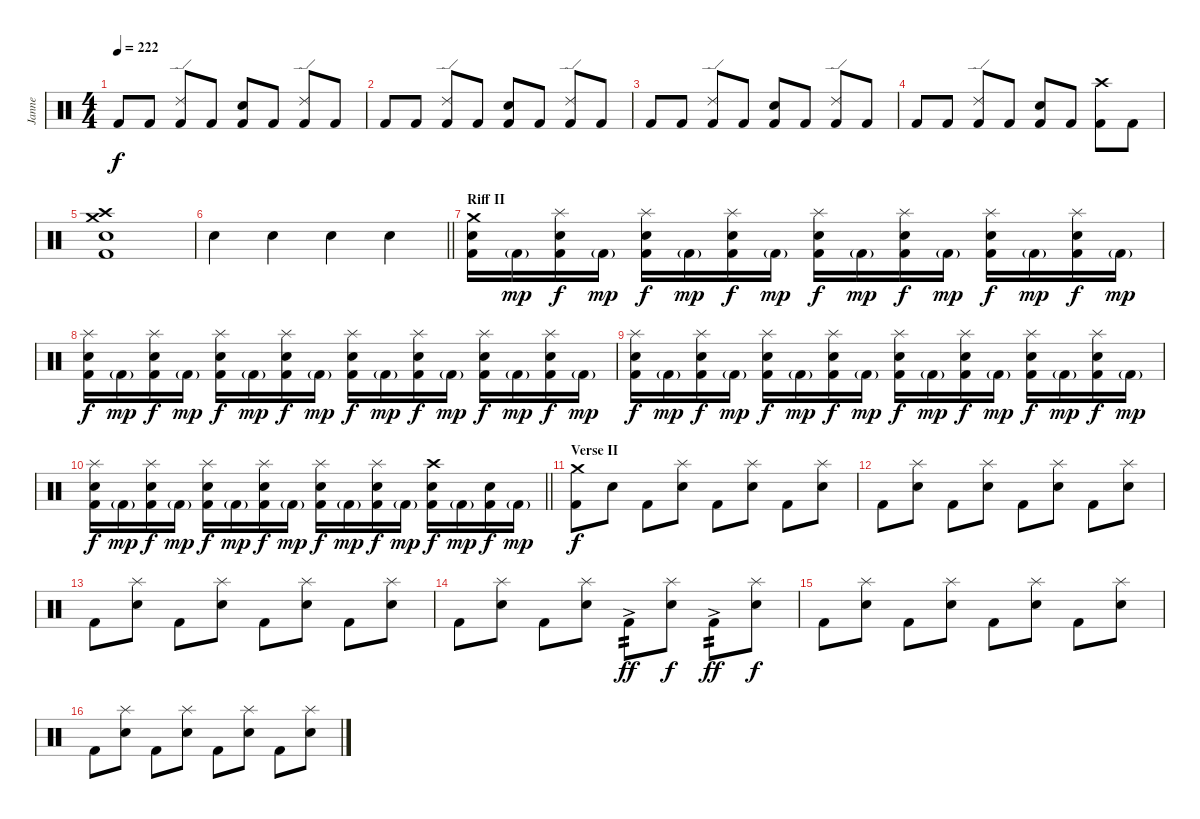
\track ("Janne" "Janne") {instrument percussion}
\staff {score}
\articulation defaults
\ts (4 4)
\tempo 222
\clef neutral
\ks c "Kick (hit) 2".8{dy f} "Kick (hit) 2".8
("Kick (hit) 2" "Ride (edge) 2").8 "Kick (hit) 2".8 ("Kick (hit) 2" "Electric Snare (hit)").8 "Kick (hit) 2".8 ("Kick (hit) 2" "Ride (edge) 2").8 "Kick (hit) 2".8 |
"Kick (hit) 2".8 "Kick (hit) 2".8 ("Kick (hit) 2" "Ride (edge) 2").8 "Kick (hit) 2".8 ("Kick (hit) 2" "Electric Snare (hit)").8 "Kick (hit) 2".8 ("Kick (hit) 2" "Ride (edge) 2").8 "Kick (hit) 2".8 |
"Kick (hit) 2".8 "Kick (hit) 2".8 ("Kick (hit) 2" "Ride (edge) 2").8 "Kick (hit) 2".8 ("Kick (hit) 2" "Electric Snare (hit)").8 "Kick (hit) 2".8 ("Kick (hit) 2" "Ride (edge) 2").8 "Kick (hit) 2".8 |
"Kick (hit) 2".8 "Kick (hit) 2".8 ("Kick (hit) 2" "Ride (edge) 2").8 "Kick (hit) 2".8 ("Kick (hit) 2" "Electric Snare (hit)").8 "Kick (hit) 2".8 ("Kick (hit) 2" "Crash high (hit)").8 "Kick (hit) 2".8 |
("Kick (hit) 2" "Electric Snare (hit)" "Crash medium (hit)" "Crash high (hit)").1 |
\barLineRight lightlight "Electric Snare (hit)".4 "Electric Snare (hit)".4 "Electric Snare (hit)".4 "Electric Snare (hit)".4
|
\section ("" "Riff II")
("Kick (hit) 2" "Electric Snare (hit)" "Crash medium (hit)").16 "Kick (hit) 2"{g}.16{dy mp} ("Kick (hit) 2" "Electric Snare (hit)" "Splash (hit)").16{dy f} "Kick (hit) 2"{g}.16{dy mp} ("Kick (hit) 2" "Electric Snare (hit)" "Splash (hit)").16{dy f} "Kick (hit) 2"{g}.16{dy mp} ("Kick (hit) 2" "Electric Snare (hit)" "Splash (hit)").16{dy f} "Kick (hit) 2"{g}.16{dy mp} ("Kick (hit) 2" "Electric Snare (hit)" "Splash (hit)").16{dy f} "Kick (hit) 2"{g}.16{dy mp} ("Kick (hit) 2" "Electric Snare (hit)" "Splash (hit)").16{dy f} "Kick (hit) 2"{g}.16{dy mp} ("Kick (hit) 2" "Electric Snare (hit)" "Splash (hit)").16{dy f} "Kick (hit) 2"{g}.16{dy mp} ("Kick (hit) 2" "Electric Snare (hit)" "Splash (hit)").16{dy f} "Kick (hit) 2"{g}.16{dy mp} |
("Kick (hit) 2" "Electric Snare (hit)" "Splash (hit)").16{dy f} "Kick (hit) 2"{g}.16{dy mp} ("Kick (hit) 2" "Electric Snare (hit)" "Splash (hit)").16{dy f} "Kick (hit) 2"{g}.16{dy mp} ("Kick (hit) 2" "Electric Snare (hit)" "Splash (hit)").16{dy f} "Kick (hit) 2"{g}.16{dy mp} ("Kick (hit) 2" "Electric Snare (hit)" "Splash (hit)").16{dy f} "Kick (hit) 2"{g}.16{dy mp} ("Kick (hit) 2" "Electric Snare (hit)" "Splash (hit)").16{dy f} "Kick (hit) 2"{g}.16{dy mp} ("Kick (hit) 2" "Electric Snare (hit)" "Splash (hit)").16{dy f} "Kick (hit) 2"{g}.16{dy mp} ("Kick (hit) 2" "Electric Snare (hit)" "Splash (hit)").16{dy f} "Kick (hit) 2"{g}.16{dy mp} ("Kick (hit) 2" "Electric Snare (hit)" "Splash (hit)").16{dy f} "Kick (hit) 2"{g}.16{dy mp} |
("Kick (hit) 2" "Electric Snare (hit)" "Splash (hit)").16{dy f} "Kick (hit) 2"{g}.16{dy mp} ("Kick (hit) 2" "Electric Snare (hit)" "Splash (hit)").16{dy f} "Kick (hit) 2"{g}.16{dy mp} ("Kick (hit) 2" "Electric Snare (hit)" "Splash (hit)").16{dy f} "Kick (hit) 2"{g}.16{dy mp} ("Kick (hit) 2" "Electric Snare (hit)" "Splash (hit)").16{dy f} "Kick (hit) 2"{g}.16{dy mp} ("Kick (hit) 2" "Electric Snare (hit)" "Splash (hit)").16{dy f} "Kick (hit) 2"{g}.16{dy mp} ("Kick (hit) 2" "Electric Snare (hit)" "Splash (hit)").16{dy f} "Kick (hit) 2"{g}.16{dy mp} ("Kick (hit) 2" "Electric Snare (hit)" "Splash (hit)").16{dy f} "Kick (hit) 2"{g}.16{dy mp} ("Kick (hit) 2" "Electric Snare (hit)" "Splash (hit)").16{dy f} "Kick (hit) 2"{g}.16{dy mp} |
\barLineRight lightlight
("Kick (hit) 2" "Electric Snare (hit)" "Splash (hit)").16{dy f} "Kick (hit) 2"{g}.16{dy mp} ("Kick (hit) 2" "Electric Snare (hit)" "Splash (hit)").16{dy f} "Kick (hit) 2"{g}.16{dy mp} ("Kick (hit) 2" "Electric Snare (hit)" "Splash (hit)").16{dy f} "Kick (hit) 2"{g}.16{dy mp} ("Kick (hit) 2" "Electric Snare (hit)" "Splash (hit)").16{dy f} "Kick (hit) 2"{g}.16{dy mp} ("Kick (hit) 2" "Electric Snare (hit)" "Splash (hit)").16{dy f} "Kick (hit) 2"{g}.16{dy mp} ("Kick (hit) 2" "Electric Snare (hit)" "Splash (hit)").16{dy f} "Kick (hit) 2"{g}.16{dy mp} ("Kick (hit) 2" "Electric Snare (hit)" "Crash high (hit)").16{dy f} "Kick (hit) 2"{g}.16{dy mp} ("Kick (hit) 2" "Electric Snare (hit)").16{dy f} "Kick (hit) 2"{g}.16{dy mp} |
\section ("" "Verse II")
("Kick (hit) 2" "Crash medium (hit)").8{dy f} "Electric Snare (hit)".8 "Kick (hit) 2".8 ("Electric Snare (hit)" "Splash (hit)").8 "Kick (hit) 2".8 ("Electric Snare (hit)" "Splash (hit)").8 "Kick (hit) 2".8 ("Electric Snare (hit)" "Splash (hit)").8 |
"Kick (hit) 2".8 ("Electric Snare (hit)" "Splash (hit)").8 "Kick (hit) 2".8 ("Electric Snare (hit)" "Splash (hit)").8 "Kick (hit) 2".8 ("Electric Snare (hit)" "Splash (hit)").8 "Kick (hit) 2".8 ("Electric Snare (hit)" "Splash (hit)").8 |
"Kick (hit) 2".8 ("Electric Snare (hit)" "Splash (hit)").8 "Kick (hit) 2".8 ("Electric Snare (hit)" "Splash (hit)").8 "Kick (hit) 2".8 ("Electric Snare (hit)" "Splash (hit)").8 "Kick (hit) 2".8 ("Electric Snare (hit)" "Splash (hit)").8 |
"Kick (hit) 2".8 ("Electric Snare (hit)" "Splash (hit)").8 "Kick (hit) 2".8 ("Electric Snare (hit)" "Splash (hit)").8 "Kick (hit) 2"{ac}.8{tp 2 dy ff} ("Electric Snare (hit)" "Splash (hit)").8{dy f} "Kick (hit) 2"{ac}.8{tp 2 dy ff} ("Electric Snare (hit)" "Splash (hit)").8{dy f} |
"Kick (hit) 2".8 ("Electric Snare (hit)" "Splash (hit)").8 "Kick (hit) 2".8 ("Electric Snare (hit)" "Splash (hit)").8 "Kick (hit) 2".8 ("Electric Snare (hit)" "Splash (hit)").8 "Kick (hit) 2".8 ("Electric Snare (hit)" "Splash (hit)").8 |
"Kick (hit) 2".8 ("Electric Snare (hit)" "Splash (hit)").8 "Kick (hit) 2".8 ("Electric Snare (hit)" "Splash (hit)").8 "Kick (hit) 2".8 ("Electric Snare (hit)" "Splash (hit)").8 "Kick (hit) 2".8 ("Electric Snare (hit)" "Splash (hit)").8
